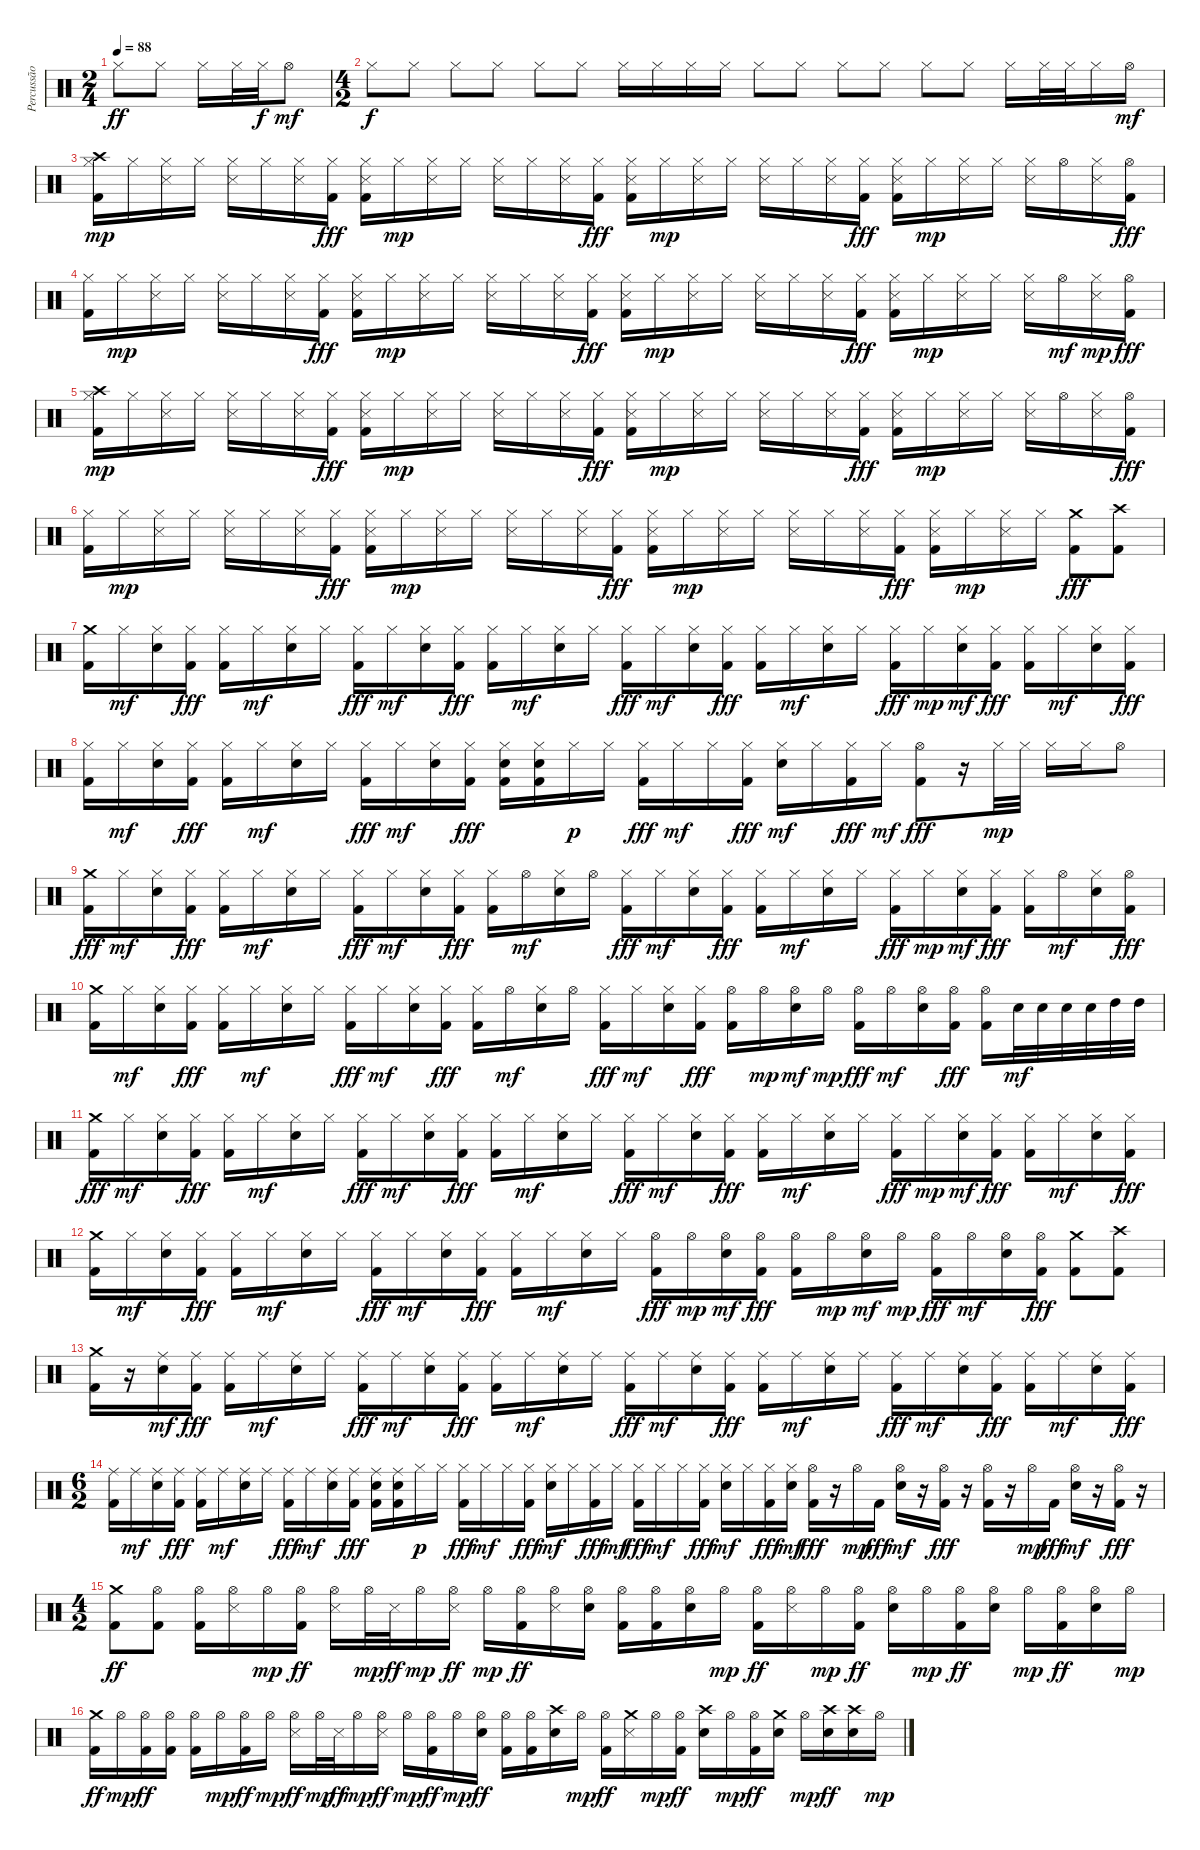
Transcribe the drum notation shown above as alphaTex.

\track ("Percussão" "Percussão") {instrument percussion}
\staff {score}
\articulation defaults
\ts (2 4)
\tempo 88
\clef neutral
\ks c "Hi-Hat (closed)".8{dy ff} "Hi-Hat (closed)".8 "Hi-Hat (closed)".16 "Hi-Hat (closed)".32 "Hi-Hat (closed)".32{dy f} "Hi-Hat (open)".8{dy mf}
|
\ts (4 2)
"Hi-Hat (closed)".8{dy f} "Hi-Hat (closed)".8 "Hi-Hat (closed)".8 "Hi-Hat (closed)".8 "Hi-Hat (closed)".8 "Hi-Hat (closed)".8 "Hi-Hat (closed)".16 "Hi-Hat (closed)".16 "Hi-Hat (closed)".16 "Hi-Hat (closed)".16 "Hi-Hat (closed)".8 "Hi-Hat (closed)".8 "Hi-Hat (closed)".8 "Hi-Hat (closed)".8 "Hi-Hat (closed)".8 "Hi-Hat (closed)".8 "Hi-Hat (closed)".16 "Hi-Hat (closed)".32 "Hi-Hat (closed)".32 "Hi-Hat (closed)".16 "Hi-Hat (open)".16{dy mf} |
("Crash high (hit)" "Hi-Hat (closed)" "Kick (hit) 2").16{dy mp} "Hi-Hat (closed)".16 ("Hi-Hat (closed)" "Snare (side stick) 3").16 "Hi-Hat (closed)".16 ("Hi-Hat (closed)" "Snare (side stick) 3").16 "Hi-Hat (closed)".16 ("Hi-Hat (closed)" "Snare (side stick) 3").16 ("Hi-Hat (closed)" "Kick (hit) 2").16{dy fff} ("Hi-Hat (closed)" "Snare (side stick) 3" "Kick (hit) 2").16 "Hi-Hat (closed)".16{dy mp} ("Hi-Hat (closed)" "Snare (side stick) 3").16 "Hi-Hat (closed)".16 ("Hi-Hat (closed)" "Snare (side stick) 3").16 "Hi-Hat (closed)".16 ("Hi-Hat (closed)" "Snare (side stick) 3").16 ("Hi-Hat (closed)" "Kick (hit) 2").16{dy fff} ("Hi-Hat (closed)" "Snare (side stick) 3" "Kick (hit) 2").16 "Hi-Hat (closed)".16{dy mp} ("Hi-Hat (closed)" "Snare (side stick) 3").16 "Hi-Hat (closed)".16 ("Hi-Hat (closed)" "Snare (side stick) 3").16 "Hi-Hat (closed)".16 ("Hi-Hat (closed)" "Snare (side stick) 3").16 ("Hi-Hat (closed)" "Kick (hit) 2").16{dy fff} ("Hi-Hat (closed)" "Snare (side stick) 3" "Kick (hit) 2").16 "Hi-Hat (closed)".16{dy mp} ("Hi-Hat (closed)" "Snare (side stick) 3").16 "Hi-Hat (closed)".16 ("Hi-Hat (closed)" "Snare (side stick) 3").16 "Hi-Hat (open)".16 ("Hi-Hat (closed)" "Snare (side stick) 3").16 ("Hi-Hat (open)" "Kick (hit) 2").16{dy fff} |
("Hi-Hat (closed)" "Kick (hit) 2").16 "Hi-Hat (closed)".16{dy mp} ("Hi-Hat (closed)" "Snare (side stick) 3").16 "Hi-Hat (closed)".16 ("Hi-Hat (closed)" "Snare (side stick) 3").16 "Hi-Hat (closed)".16 ("Hi-Hat (closed)" "Snare (side stick) 3").16 ("Hi-Hat (closed)" "Kick (hit) 2").16{dy fff} ("Hi-Hat (closed)" "Snare (side stick) 3" "Kick (hit) 2").16 "Hi-Hat (closed)".16{dy mp} ("Hi-Hat (closed)" "Snare (side stick) 3").16 "Hi-Hat (closed)".16 ("Hi-Hat (closed)" "Snare (side stick) 3").16 "Hi-Hat (closed)".16 ("Hi-Hat (closed)" "Snare (side stick) 3").16 ("Hi-Hat (closed)" "Kick (hit) 2").16{dy fff} ("Hi-Hat (closed)" "Snare (side stick) 3" "Kick (hit) 2").16 "Hi-Hat (closed)".16{dy mp} ("Hi-Hat (closed)" "Snare (side stick) 3").16 "Hi-Hat (closed)".16 ("Hi-Hat (closed)" "Snare (side stick) 3").16 "Hi-Hat (closed)".16 ("Hi-Hat (closed)" "Snare (side stick) 3").16 ("Hi-Hat (closed)" "Kick (hit) 2").16{dy fff} ("Hi-Hat (closed)" "Snare (side stick) 3" "Kick (hit) 2").16 "Hi-Hat (closed)".16{dy mp} ("Hi-Hat (closed)" "Snare (side stick) 3").16 "Hi-Hat (closed)".16 ("Hi-Hat (closed)" "Snare (side stick) 3").16 "Hi-Hat (open)".16{dy mf} ("Hi-Hat (closed)" "Snare (side stick) 3").16{dy mp} ("Hi-Hat (open)" "Kick (hit) 2").16{dy fff} |
("Crash high (hit)" "Hi-Hat (closed)" "Kick (hit) 2").16{dy mp} "Hi-Hat (closed)".16 ("Hi-Hat (closed)" "Snare (side stick) 3").16 "Hi-Hat (closed)".16 ("Hi-Hat (closed)" "Snare (side stick) 3").16 "Hi-Hat (closed)".16 ("Hi-Hat (closed)" "Snare (side stick) 3").16 ("Hi-Hat (closed)" "Kick (hit) 2").16{dy fff} ("Hi-Hat (closed)" "Snare (side stick) 3" "Kick (hit) 2").16 "Hi-Hat (closed)".16{dy mp} ("Hi-Hat (closed)" "Snare (side stick) 3").16 "Hi-Hat (closed)".16 ("Hi-Hat (closed)" "Snare (side stick) 3").16 "Hi-Hat (closed)".16 ("Hi-Hat (closed)" "Snare (side stick) 3").16 ("Hi-Hat (closed)" "Kick (hit) 2").16{dy fff} ("Hi-Hat (closed)" "Snare (side stick) 3" "Kick (hit) 2").16 "Hi-Hat (closed)".16{dy mp} ("Hi-Hat (closed)" "Snare (side stick) 3").16 "Hi-Hat (closed)".16 ("Hi-Hat (closed)" "Snare (side stick) 3").16 "Hi-Hat (closed)".16 ("Hi-Hat (closed)" "Snare (side stick) 3").16 ("Hi-Hat (closed)" "Kick (hit) 2").16{dy fff} ("Hi-Hat (closed)" "Snare (side stick) 3" "Kick (hit) 2").16 "Hi-Hat (closed)".16{dy mp} ("Hi-Hat (closed)" "Snare (side stick) 3").16 "Hi-Hat (closed)".16 ("Hi-Hat (closed)" "Snare (side stick) 3").16 "Hi-Hat (open)".16 ("Hi-Hat (closed)" "Snare (side stick) 3").16 ("Hi-Hat (open)" "Kick (hit) 2").16{dy fff} |
("Hi-Hat (closed)" "Kick (hit) 2").16 "Hi-Hat (closed)".16{dy mp} ("Hi-Hat (closed)" "Snare (side stick) 3").16 "Hi-Hat (closed)".16 ("Hi-Hat (closed)" "Snare (side stick) 3").16 "Hi-Hat (closed)".16 ("Hi-Hat (closed)" "Snare (side stick) 3").16 ("Hi-Hat (closed)" "Kick (hit) 2").16{dy fff} ("Hi-Hat (closed)" "Snare (side stick) 3" "Kick (hit) 2").16 "Hi-Hat (closed)".16{dy mp} ("Hi-Hat (closed)" "Snare (side stick) 3").16 "Hi-Hat (closed)".16 ("Hi-Hat (closed)" "Snare (side stick) 3").16 "Hi-Hat (closed)".16 ("Hi-Hat (closed)" "Snare (side stick) 3").16 ("Hi-Hat (closed)" "Kick (hit) 2").16{dy fff} ("Hi-Hat (closed)" "Snare (side stick) 3" "Kick (hit) 2").16 "Hi-Hat (closed)".16{dy mp} ("Hi-Hat (closed)" "Snare (side stick) 3").16 "Hi-Hat (closed)".16 ("Hi-Hat (closed)" "Snare (side stick) 3").16 "Hi-Hat (closed)".16 ("Hi-Hat (closed)" "Snare (side stick) 3").16 ("Hi-Hat (closed)" "Kick (hit) 2").16{dy fff} ("Hi-Hat (closed)" "Snare (side stick) 3" "Kick (hit) 2").16 "Hi-Hat (closed)".16{dy mp} ("Hi-Hat (closed)" "Snare (side stick) 3").16 "Hi-Hat (closed)".16 ("Crash medium (hit)" "Kick (hit) 2").8{dy fff} ("Crash high (hit)" "Kick (hit) 2").8 |
("Crash medium (hit)" "Kick (hit) 2").16 "Hi-Hat (closed)".16{dy mf} ("Hi-Hat (closed)" "Snare (hit) 2").16 ("Hi-Hat (closed)" "Kick (hit) 2").16{dy fff} ("Hi-Hat (closed)" "Kick (hit) 2").16 "Hi-Hat (closed)".16{dy mf} ("Hi-Hat (closed)" "Snare (hit) 2").16 "Hi-Hat (closed)".16 ("Hi-Hat (closed)" "Kick (hit) 2").16{dy fff} "Hi-Hat (closed)".16{dy mf} ("Hi-Hat (closed)" "Snare (hit) 2").16 ("Hi-Hat (closed)" "Kick (hit) 2").16{dy fff} ("Hi-Hat (closed)" "Kick (hit) 2").16 "Hi-Hat (closed)".16{dy mf} ("Hi-Hat (closed)" "Snare (hit) 2").16 "Hi-Hat (closed)".16 ("Hi-Hat (closed)" "Kick (hit) 2").16{dy fff} "Hi-Hat (closed)".16{dy mf} ("Hi-Hat (closed)" "Snare (hit) 2").16 ("Hi-Hat (closed)" "Kick (hit) 2").16{dy fff} ("Hi-Hat (closed)" "Kick (hit) 2").16 "Hi-Hat (closed)".16{dy mf} ("Hi-Hat (closed)" "Snare (hit) 2").16 "Hi-Hat (closed)".16 ("Hi-Hat (closed)" "Kick (hit) 2").16{dy fff} "Hi-Hat (closed)".16{dy mp} ("Hi-Hat (closed)" "Snare (hit) 2").16{dy mf} ("Hi-Hat (closed)" "Kick (hit) 2").16{dy fff} ("Hi-Hat (closed)" "Kick (hit) 2").16 "Hi-Hat (closed)".16{dy mf} ("Hi-Hat (closed)" "Snare (hit) 2").16 ("Hi-Hat (closed)" "Kick (hit) 2").16{dy fff} |
("Hi-Hat (closed)" "Kick (hit) 2").16 "Hi-Hat (closed)".16{dy mf} ("Hi-Hat (closed)" "Snare (hit) 2").16 ("Hi-Hat (closed)" "Kick (hit) 2").16{dy fff} ("Hi-Hat (closed)" "Kick (hit) 2").16 "Hi-Hat (closed)".16{dy mf} ("Hi-Hat (closed)" "Snare (hit) 2").16 "Hi-Hat (closed)".16 ("Hi-Hat (closed)" "Kick (hit) 2").16{dy fff} "Hi-Hat (closed)".16{dy mf} ("Hi-Hat (closed)" "Snare (hit) 2").16 ("Hi-Hat (closed)" "Kick (hit) 2").16{dy fff} ("Hi-Hat (closed)" "Snare (hit) 2" "Kick (hit) 2").16 ("Hi-Hat (closed)" "Snare (hit) 2" "Kick (hit) 2").16 "Hi-Hat (closed)".16{dy p} "Hi-Hat (closed)".16 ("Hi-Hat (closed)" "Kick (hit) 2").16{dy fff} "Hi-Hat (closed)".16{dy mf} "Hi-Hat (closed)".16 ("Hi-Hat (closed)" "Kick (hit) 2").16{dy fff} ("Hi-Hat (closed)" "Snare (hit) 2").16{dy mf} "Hi-Hat (closed)".16 ("Hi-Hat (closed)" "Kick (hit) 2").16{dy fff} "Hi-Hat (closed)".16{dy mf} ("Hi-Hat (open)" "Kick (hit) 2").8{dy fff} r.16 "Hi-Hat (closed)".32{dy mp} "Hi-Hat (closed)".32 "Hi-Hat (closed)".16 "Hi-Hat (closed)".16 "Hi-Hat (open)".8 |
("Crash medium (hit)" "Kick (hit) 2").16{dy fff} "Hi-Hat (closed)".16{dy mf} ("Hi-Hat (closed)" "Snare (hit) 2").16 ("Hi-Hat (closed)" "Kick (hit) 2").16{dy fff} ("Hi-Hat (closed)" "Kick (hit) 2").16 "Hi-Hat (closed)".16{dy mf} ("Hi-Hat (closed)" "Snare (hit) 2").16 "Hi-Hat (closed)".16 ("Hi-Hat (closed)" "Kick (hit) 2").16{dy fff} "Hi-Hat (closed)".16{dy mf} ("Hi-Hat (closed)" "Snare (hit) 2").16 ("Hi-Hat (closed)" "Kick (hit) 2").16{dy fff} ("Hi-Hat (closed)" "Kick (hit) 2").16 "Hi-Hat (open)".16{dy mf} ("Hi-Hat (closed)" "Snare (hit) 2").16 "Hi-Hat (open)".16 ("Hi-Hat (closed)" "Kick (hit) 2").16{dy fff} "Hi-Hat (closed)".16{dy mf} ("Hi-Hat (closed)" "Snare (hit) 2").16 ("Hi-Hat (closed)" "Kick (hit) 2").16{dy fff} ("Hi-Hat (closed)" "Kick (hit) 2").16 "Hi-Hat (closed)".16{dy mf} ("Hi-Hat (closed)" "Snare (hit) 2").16 "Hi-Hat (closed)".16 ("Hi-Hat (closed)" "Kick (hit) 2").16{dy fff} "Hi-Hat (closed)".16{dy mp} ("Hi-Hat (closed)" "Snare (hit) 2").16{dy mf} ("Hi-Hat (closed)" "Kick (hit) 2").16{dy fff} ("Hi-Hat (closed)" "Kick (hit) 2").16 "Hi-Hat (open)".16{dy mf} ("Hi-Hat (closed)" "Snare (hit) 2").16 ("Hi-Hat (open)" "Kick (hit) 2").16{dy fff} |
("Crash medium (hit)" "Kick (hit) 2").16 "Hi-Hat (closed)".16{dy mf} ("Hi-Hat (closed)" "Snare (hit) 2").16 ("Hi-Hat (closed)" "Kick (hit) 2").16{dy fff} ("Hi-Hat (closed)" "Kick (hit) 2").16 "Hi-Hat (closed)".16{dy mf} ("Hi-Hat (closed)" "Snare (hit) 2").16 "Hi-Hat (closed)".16 ("Hi-Hat (closed)" "Kick (hit) 2").16{dy fff} "Hi-Hat (closed)".16{dy mf} ("Hi-Hat (closed)" "Snare (hit) 2").16 ("Hi-Hat (closed)" "Kick (hit) 2").16{dy fff} ("Hi-Hat (closed)" "Kick (hit) 2").16 "Hi-Hat (open)".16{dy mf} ("Hi-Hat (closed)" "Snare (hit) 2").16 "Hi-Hat (open)".16 ("Hi-Hat (closed)" "Kick (hit) 2").16{dy fff} "Hi-Hat (closed)".16{dy mf} ("Hi-Hat (closed)" "Snare (hit) 2").16 ("Hi-Hat (closed)" "Kick (hit) 2").16{dy fff} ("Hi-Hat (open)" "Kick (hit) 2").16 "Hi-Hat (open)".16{dy mp} ("Hi-Hat (open)" "Snare (hit) 2").16{dy mf} "Hi-Hat (open)".16{dy mp} ("Hi-Hat (open)" "Kick (hit) 2").16{dy fff} "Hi-Hat (open)".16{dy mf} ("Hi-Hat (open)" "Snare (hit) 2").16 ("Hi-Hat (open)" "Kick (hit) 2").16{dy fff} ("Hi-Hat (open)" "Kick (hit) 2").16 "Snare (hit) 2".32{dy mf} "Snare (hit) 2".32 "Snare (hit) 2".32 "Snare (hit) 2".32 "High Tom (hit)".32 "High Tom (hit)".32 |
("Crash medium (hit)" "Kick (hit) 2").16{dy fff} "Hi-Hat (closed)".16{dy mf} ("Hi-Hat (closed)" "Snare (hit) 2").16 ("Hi-Hat (closed)" "Kick (hit) 2").16{dy fff} ("Hi-Hat (closed)" "Kick (hit) 2").16 "Hi-Hat (closed)".16{dy mf} ("Hi-Hat (closed)" "Snare (hit) 2").16 "Hi-Hat (closed)".16 ("Hi-Hat (closed)" "Kick (hit) 2").16{dy fff} "Hi-Hat (closed)".16{dy mf} ("Hi-Hat (closed)" "Snare (hit) 2").16 ("Hi-Hat (closed)" "Kick (hit) 2").16{dy fff} ("Hi-Hat (closed)" "Kick (hit) 2").16 "Hi-Hat (closed)".16{dy mf} ("Hi-Hat (closed)" "Snare (hit) 2").16 "Hi-Hat (closed)".16 ("Hi-Hat (closed)" "Kick (hit) 2").16{dy fff} "Hi-Hat (closed)".16{dy mf} ("Hi-Hat (closed)" "Snare (hit) 2").16 ("Hi-Hat (closed)" "Kick (hit) 2").16{dy fff} ("Hi-Hat (closed)" "Kick (hit) 2").16 "Hi-Hat (closed)".16{dy mf} ("Hi-Hat (closed)" "Snare (hit) 2").16 "Hi-Hat (closed)".16 ("Hi-Hat (closed)" "Kick (hit) 2").16{dy fff} "Hi-Hat (closed)".16{dy mp} ("Hi-Hat (closed)" "Snare (hit) 2").16{dy mf} ("Hi-Hat (closed)" "Kick (hit) 2").16{dy fff} ("Hi-Hat (closed)" "Kick (hit) 2").16 "Hi-Hat (closed)".16{dy mf} ("Hi-Hat (closed)" "Snare (hit) 2").16 ("Hi-Hat (closed)" "Kick (hit) 2").16{dy fff} |
("Crash medium (hit)" "Kick (hit) 2").16 "Hi-Hat (closed)".16{dy mf} ("Hi-Hat (closed)" "Snare (hit) 2").16 ("Hi-Hat (closed)" "Kick (hit) 2").16{dy fff} ("Hi-Hat (closed)" "Kick (hit) 2").16 "Hi-Hat (closed)".16{dy mf} ("Hi-Hat (closed)" "Snare (hit) 2").16 "Hi-Hat (closed)".16 ("Hi-Hat (closed)" "Kick (hit) 2").16{dy fff} "Hi-Hat (closed)".16{dy mf} ("Hi-Hat (closed)" "Snare (hit) 2").16 ("Hi-Hat (closed)" "Kick (hit) 2").16{dy fff} ("Hi-Hat (closed)" "Kick (hit) 2").16 "Hi-Hat (closed)".16{dy mf} ("Hi-Hat (closed)" "Snare (hit) 2").16 "Hi-Hat (closed)".16 ("Hi-Hat (open)" "Kick (hit) 2").16{dy fff} "Hi-Hat (open)".16{dy mp} ("Hi-Hat (open)" "Snare (hit) 2").16{dy mf} ("Hi-Hat (open)" "Kick (hit) 2").16{dy fff} ("Hi-Hat (open)" "Kick (hit) 2").16 "Hi-Hat (open)".16{dy mp} ("Hi-Hat (open)" "Snare (hit) 2").16{dy mf} "Hi-Hat (open)".16{dy mp} ("Hi-Hat (open)" "Kick (hit) 2").16{dy fff} "Hi-Hat (open)".16{dy mf} ("Hi-Hat (open)" "Snare (hit) 2").16 ("Hi-Hat (open)" "Kick (hit) 2").16{dy fff} ("Crash medium (hit)" "Kick (hit) 2").8 ("Crash high (hit)" "Kick (hit) 2").8 |
("Crash medium (hit)" "Kick (hit) 2").16 r.16 ("Ride (middle)" "Snare (hit) 2").16{dy mf} ("Ride (middle)" "Kick (hit) 2").16{dy fff} ("Ride (middle)" "Kick (hit) 2").16 "Ride (middle)".16{dy mf} ("Ride (middle)" "Snare (hit) 2").16 "Ride (middle)".16 ("Ride (middle)" "Kick (hit) 2").16{dy fff} "Ride (middle)".16{dy mf} ("Ride (middle)" "Snare (hit) 2").16 ("Ride (middle)" "Kick (hit) 2").16{dy fff} ("Ride (middle)" "Kick (hit) 2").16 "Ride (middle)".16{dy mf} ("Ride (middle)" "Snare (hit) 2").16 "Ride (middle)".16 ("Ride (middle)" "Kick (hit) 2").16{dy fff} "Ride (middle)".16{dy mf} ("Ride (middle)" "Snare (hit) 2").16 ("Ride (middle)" "Kick (hit) 2").16{dy fff} ("Ride (middle)" "Kick (hit) 2").16 "Ride (middle)".16{dy mf} ("Ride (middle)" "Snare (hit) 2").16 "Ride (middle)".16 ("Ride (middle)" "Kick (hit) 2").16{dy fff} "Ride (middle)".16{dy mf} ("Ride (middle)" "Snare (hit) 2").16 ("Ride (middle)" "Kick (hit) 2").16{dy fff} ("Ride (middle)" "Kick (hit) 2").16 "Ride (middle)".16{dy mf} ("Ride (middle)" "Snare (hit) 2").16 ("Ride (middle)" "Kick (hit) 2").16{dy fff} |
\ts (6 2)
("Ride (middle)" "Kick (hit) 2").16 "Ride (middle)".16{dy mf} ("Ride (middle)" "Snare (hit) 2").16 ("Ride (middle)" "Kick (hit) 2").16{dy fff} ("Ride (middle)" "Kick (hit) 2").16 "Ride (middle)".16{dy mf} ("Ride (middle)" "Snare (hit) 2").16 "Ride (middle)".16 ("Ride (middle)" "Kick (hit) 2").16{dy fff} "Ride (middle)".16{dy mf} ("Ride (middle)" "Snare (hit) 2").16 ("Ride (middle)" "Kick (hit) 2").16{dy fff} ("Ride (middle)" "Snare (hit) 2" "Kick (hit) 2").16 ("Ride (middle)" "Snare (hit) 2" "Kick (hit) 2").16 "Hi-Hat (closed)".16{dy p} "Hi-Hat (closed)".16 ("Hi-Hat (closed)" "Kick (hit) 2").16{dy fff} "Hi-Hat (closed)".16{dy mf} "Hi-Hat (closed)".16 ("Hi-Hat (closed)" "Kick (hit) 2").16{dy fff} ("Hi-Hat (closed)" "Snare (hit) 2").16{dy mf} "Hi-Hat (closed)".16 ("Hi-Hat (closed)" "Kick (hit) 2").16{dy fff} "Hi-Hat (closed)".16{dy mf} ("Hi-Hat (closed)" "Kick (hit) 2").16{dy fff} "Hi-Hat (closed)".16{dy mf} "Hi-Hat (closed)".16 ("Hi-Hat (closed)" "Kick (hit) 2").16{dy fff} ("Hi-Hat (closed)" "Snare (hit) 2").16{dy mf} "Hi-Hat (closed)".16 ("Hi-Hat (closed)" "Kick (hit) 2").16{dy fff} ("Hi-Hat (closed)" "Snare (hit) 2").16{dy mf} ("Hi-Hat (open)" "Kick (hit) 2").16{dy fff} r.16 "Hi-Hat (open)".16{dy mp} "Kick (hit) 2".16{dy fff} ("Hi-Hat (open)" "Snare (hit) 2").16{dy mf} r.16 ("Hi-Hat (open)" "Kick (hit) 2").16{dy fff} r.16 ("Hi-Hat (open)" "Kick (hit) 2").16 r.16 "Hi-Hat (open)".16{dy mp} "Kick (hit) 2".16{dy fff} ("Hi-Hat (open)" "Snare (hit) 2").16{dy mf} r.16 ("Hi-Hat (open)" "Kick (hit) 2").16{dy fff} r.16 |
\ts (4 2)
("Crash medium (hit)" "Kick (hit) 2").8{dy ff} ("Hi-Hat (open)" "Kick (hit) 2").8 ("Hi-Hat (open)" "Kick (hit) 2").16 ("Hi-Hat (open)" "Snare (side stick) 3").16 "Hi-Hat (open)".16{dy mp} ("Hi-Hat (open)" "Kick (hit) 2").16{dy ff} ("Hi-Hat (open)" "Snare (side stick) 3").16 "Hi-Hat (open)".32{dy mp} "Snare (side stick) 3".32{dy ff} "Hi-Hat (open)".16{dy mp} ("Hi-Hat (open)" "Snare (side stick) 3").16{dy ff} "Hi-Hat (open)".16{dy mp} ("Hi-Hat (open)" "Kick (hit) 2").16{dy ff} ("Hi-Hat (open)" "Snare (side stick) 3").16 ("Hi-Hat (open)" "Snare (hit) 2").16 ("Hi-Hat (open)" "Kick (hit) 2").16 ("Hi-Hat (open)" "Kick (hit) 2").16 ("Hi-Hat (open)" "Snare (hit) 2").16 "Hi-Hat (open)".16{dy mp} ("Hi-Hat (open)" "Kick (hit) 2").16{dy ff} ("Hi-Hat (open)" "Snare (side stick) 3").16 "Hi-Hat (open)".16{dy mp} ("Hi-Hat (open)" "Kick (hit) 2").16{dy ff} ("Hi-Hat (open)" "Electric Snare (hit)").16 "Hi-Hat (open)".16{dy mp} ("Hi-Hat (open)" "Kick (hit) 2").16{dy ff} ("Hi-Hat (open)" "Snare (hit) 2").16 "Hi-Hat (open)".16{dy mp} ("Hi-Hat (open)" "Kick (hit) 2").16{dy ff} ("Hi-Hat (open)" "Snare (hit) 2").16 "Hi-Hat (open)".16{dy mp} |
("Crash medium (hit)" "Kick (hit) 2").16{dy ff} "Hi-Hat (open)".16{dy mp} ("Hi-Hat (open)" "Kick (hit) 2").16{dy ff} ("Hi-Hat (open)" "Kick (hit) 2").16 ("Hi-Hat (open)" "Kick (hit) 2").16 "Hi-Hat (open)".16{dy mp} ("Hi-Hat (open)" "Kick (hit) 2").16{dy ff} "Hi-Hat (open)".16{dy mp} ("Hi-Hat (open)" "Snare (side stick) 3").16{dy ff} "Hi-Hat (open)".32{dy mp} "Snare (side stick) 3".32{dy ff} "Hi-Hat (open)".16{dy mp} ("Hi-Hat (open)" "Snare (side stick) 3").16{dy ff} "Hi-Hat (open)".16{dy mp} ("Hi-Hat (open)" "Kick (hit) 2").16{dy ff} "Hi-Hat (open)".16{dy mp} ("Hi-Hat (open)" "Snare (hit) 2").16{dy ff} ("Hi-Hat (open)" "Kick (hit) 2").16 ("Hi-Hat (open)" "Kick (hit) 2").16 ("Crash high (hit)" "Snare (hit) 2").16 "Hi-Hat (open)".16{dy mp} ("Hi-Hat (open)" "Kick (hit) 2").16{dy ff} ("Crash medium (hit)" "Snare (side stick) 3").16 "Hi-Hat (open)".16{dy mp} ("Hi-Hat (open)" "Kick (hit) 2").16{dy ff} ("Crash high (hit)" "Electric Snare (hit)").16 "Hi-Hat (open)".16{dy mp} ("Hi-Hat (open)" "Kick (hit) 2").16{dy ff} ("Crash medium (hit)" "Snare (hit) 2").16 "Hi-Hat (open)".16{dy mp} ("Crash high (hit)" "Snare (hit) 2").16{dy ff} ("Crash high (hit)" "Snare (hit) 2").16 "Hi-Hat (open)".16{dy mp}
